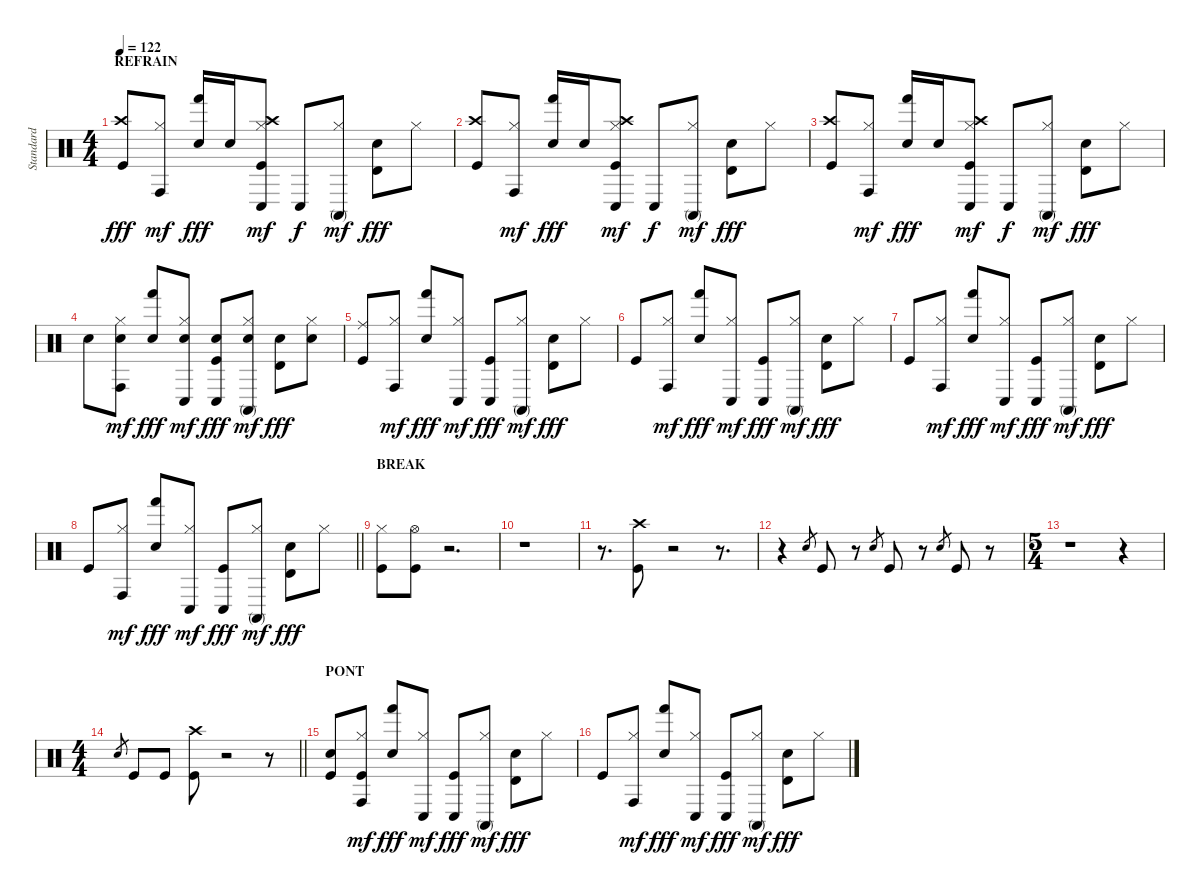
\track ("Standard" "Standard") {instrument percussion}
\staff {score}
\articulation defaults
\ts (4 4)
\section ("" "REFRAIN")
\tempo 122
\clef neutral
\ks c
("Kick (hit)" "Crash high (hit)").8{dy fff} ("Hi-Hat (closed)" "Conga high (hit)").8{dy mf} ("Electric Snare (hit)" "Hand (hit)").16{dy fff} "Electric Snare (hit)".16 ("Kick (hit)" "Hi-Hat (closed)" "Crash high (hit)" "Conga low (hit)").8{dy mf} "Conga low (hit)".8{dy f} ("Hi-Hat (closed)" "Conga high (mute)").8{dy mf} ("Electric Snare (hit)" "Timbale high (hit)").8{dy fff} "Hi-Hat (closed)".8 |
("Kick (hit)" "Crash high (hit)").8 ("Hi-Hat (closed)" "Conga high (hit)").8{dy mf} ("Electric Snare (hit)" "Hand (hit)").16{dy fff} "Electric Snare (hit)".16 ("Kick (hit)" "Hi-Hat (closed)" "Crash high (hit)" "Conga low (hit)").8{dy mf} "Conga low (hit)".8{dy f} ("Hi-Hat (closed)" "Conga high (mute)").8{dy mf} ("Electric Snare (hit)" "Timbale high (hit)").8{dy fff} "Hi-Hat (closed)".8 |
("Kick (hit)" "Crash high (hit)").8 ("Hi-Hat (closed)" "Conga high (hit)").8{dy mf} ("Electric Snare (hit)" "Hand (hit)").16{dy fff} "Electric Snare (hit)".16 ("Kick (hit)" "Hi-Hat (closed)" "Crash high (hit)" "Conga low (hit)").8{dy mf} "Conga low (hit)".8{dy f} ("Hi-Hat (closed)" "Conga high (mute)").8{dy mf} ("Electric Snare (hit)" "Timbale high (hit)").8{dy fff} "Hi-Hat (closed)".8 |
"Electric Snare (hit)".8 ("Electric Snare (hit)" "Hi-Hat (closed)" "Conga high (hit)").8{dy mf} ("Electric Snare (hit)" "Hand (hit)").8{dy fff} ("Electric Snare (hit)" "Hi-Hat (closed)" "Conga low (hit)").8{dy mf} ("Kick (hit)" "Electric Snare (hit)" "Conga low (hit)").8{dy fff} ("Electric Snare (hit)" "Hi-Hat (closed)" "Conga high (mute)").8{dy mf} ("Electric Snare (hit)" "Timbale high (hit)").8{dy fff} ("Electric Snare (hit)" "Hi-Hat (closed)").8 |
("Kick (hit)" "Ride (middle)").8 ("Hi-Hat (closed)" "Conga high (hit)").8{dy mf} ("Electric Snare (hit)" "Hand (hit)").8{dy fff} ("Hi-Hat (closed)" "Conga low (hit)").8{dy mf} ("Kick (hit)" "Conga low (hit)").8{dy fff} ("Hi-Hat (closed)" "Conga high (mute)").8{dy mf} ("Electric Snare (hit)" "Timbale high (hit)").8{dy fff} "Hi-Hat (closed)".8 |
"Kick (hit)".8 ("Hi-Hat (closed)" "Conga high (hit)").8{dy mf} ("Electric Snare (hit)" "Hand (hit)").8{dy fff} ("Hi-Hat (closed)" "Conga low (hit)").8{dy mf} ("Kick (hit)" "Conga low (hit)").8{dy fff} ("Hi-Hat (closed)" "Conga high (mute)").8{dy mf} ("Electric Snare (hit)" "Timbale high (hit)").8{dy fff} "Hi-Hat (closed)".8 |
"Kick (hit)".8 ("Hi-Hat (closed)" "Conga high (hit)").8{dy mf} ("Electric Snare (hit)" "Hand (hit)").8{dy fff} ("Hi-Hat (closed)" "Conga low (hit)").8{dy mf} ("Kick (hit)" "Conga low (hit)").8{dy fff} ("Hi-Hat (closed)" "Conga high (mute)").8{dy mf} ("Electric Snare (hit)" "Timbale high (hit)").8{dy fff} "Hi-Hat (closed)".8 |
\barLineRight lightlight "Kick (hit)".8
("Hi-Hat (closed)" "Conga high (hit)").8{dy mf} ("Electric Snare (hit)" "Hand (hit)").8{dy fff} ("Hi-Hat (closed)" "Conga low (hit)").8{dy mf} ("Kick (hit)" "Conga low (hit)").8{dy fff} ("Hi-Hat (closed)" "Conga high (mute)").8{dy mf} ("Electric Snare (hit)" "Timbale high (hit)").8{dy fff} "Hi-Hat (closed)".8 |
\section ("" "BREAK")
("Kick (hit)" "Hi-Hat (closed)").8 ("Kick (hit)" "Hi-Hat (open)").8 r.2{d} |
r.1 |
r.8{d} ("Crash high (hit)" "Kick (hit)").8 r.2 r.8{d} |
r.4 "Electric Snare (hit)".8{gr} "Kick (hit)".8 r.8 "Electric Snare (hit)".8{gr} "Kick (hit)".8 r.8 "Electric Snare (hit)".8{gr} "Kick (hit)".8 r.8 |
\ts (5 4)
r.1 r.4 |
\ts (4 4)
\barLineRight lightlight "Electric Snare (hit)".8{gr} "Kick (hit)".8 "Kick (hit)".8
("Kick (hit)" "Crash high (hit)").8 r.2 r.8 |
\section ("" "PONT")
("Kick (hit)" "Electric Snare (hit)").8 ("Kick (hit)" "Hi-Hat (closed)" "Conga high (hit)").8{dy mf} ("Electric Snare (hit)" "Hand (hit)").8{dy fff} ("Hi-Hat (closed)" "Conga low (hit)").8{dy mf} ("Kick (hit)" "Conga low (hit)").8{dy fff} ("Hi-Hat (closed)" "Conga high (mute)").8{dy mf} ("Electric Snare (hit)" "Timbale high (hit)").8{dy fff} "Hi-Hat (closed)".8 |
"Kick (hit)".8 ("Hi-Hat (closed)" "Conga high (hit)").8{dy mf} ("Electric Snare (hit)" "Hand (hit)").8{dy fff} ("Hi-Hat (closed)" "Conga low (hit)").8{dy mf} ("Kick (hit)" "Conga low (hit)").8{dy fff} ("Hi-Hat (closed)" "Conga high (mute)").8{dy mf} ("Electric Snare (hit)" "Timbale high (hit)").8{dy fff} "Hi-Hat (closed)".8
